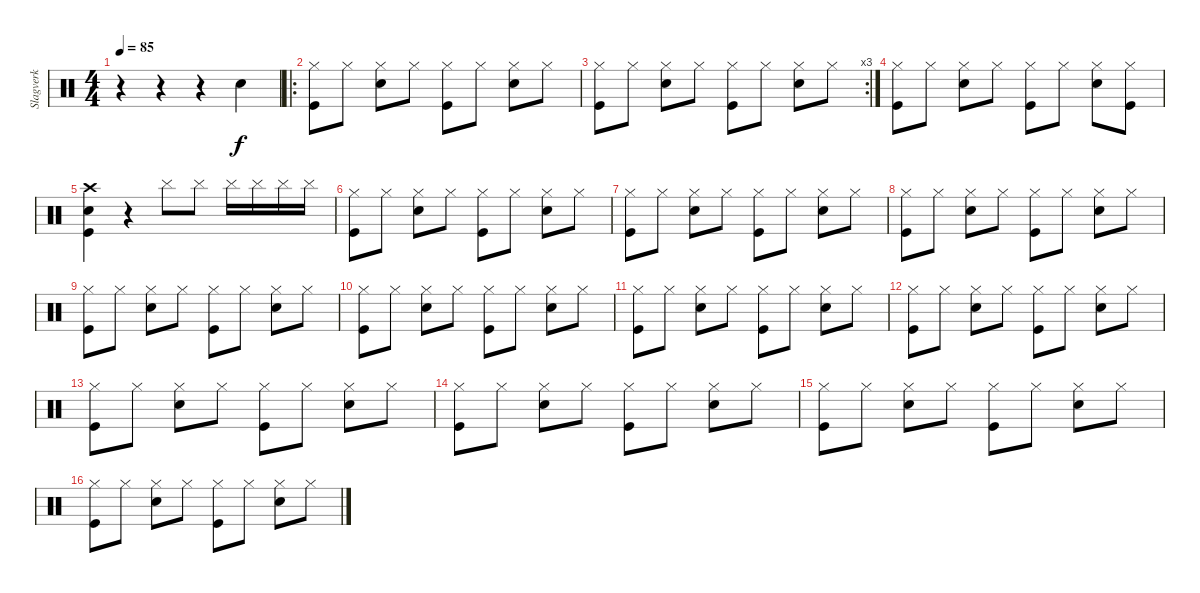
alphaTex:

\track ("Slagverk" "Slagverk") {instrument percussion}
\staff {score}
\articulation defaults
\ts (4 4)
\tempo 85
\clef neutral
\ks c
r.4{dy f} r.4 r.4 "Electric Snare (hit)".4 |
\ro
("Hi-Hat (closed)" "Kick (hit)").8 "Hi-Hat (closed)".8 ("Hi-Hat (closed)" "Electric Snare (hit)").8 "Hi-Hat (closed)".8 ("Hi-Hat (closed)" "Kick (hit)").8 "Hi-Hat (closed)".8 ("Hi-Hat (closed)" "Electric Snare (hit)").8 "Hi-Hat (closed)".8 |
\rc 3
("Hi-Hat (closed)" "Kick (hit)").8 "Hi-Hat (closed)".8 ("Hi-Hat (closed)" "Electric Snare (hit)").8 "Hi-Hat (closed)".8 ("Hi-Hat (closed)" "Kick (hit)").8 "Hi-Hat (closed)".8 ("Hi-Hat (closed)" "Electric Snare (hit)").8 "Hi-Hat (closed)".8 |
("Hi-Hat (closed)" "Kick (hit)").8 "Hi-Hat (closed)".8 ("Hi-Hat (closed)" "Electric Snare (hit)").8 "Hi-Hat (closed)".8 ("Hi-Hat (closed)" "Kick (hit)").8 "Hi-Hat (closed)".8 ("Hi-Hat (closed)" "Electric Snare (hit)").8 ("Hi-Hat (closed)" "Kick (hit)").8 |
("Electric Snare (hit)" "Crash high (hit)" "Kick (hit)").4 r.4 "Cymbal (hit)".8 "Cymbal (hit)".8 "Cymbal (hit)".16 "Cymbal (hit)".16 "Cymbal (hit)".16 "Cymbal (hit)".16 |
("Hi-Hat (closed)" "Kick (hit)").8 "Hi-Hat (closed)".8 ("Hi-Hat (closed)" "Electric Snare (hit)").8 "Hi-Hat (closed)".8 ("Hi-Hat (closed)" "Kick (hit)").8 "Hi-Hat (closed)".8 ("Hi-Hat (closed)" "Electric Snare (hit)").8 "Hi-Hat (closed)".8 |
("Hi-Hat (closed)" "Kick (hit)").8 "Hi-Hat (closed)".8 ("Hi-Hat (closed)" "Electric Snare (hit)").8 "Hi-Hat (closed)".8 ("Hi-Hat (closed)" "Kick (hit)").8 "Hi-Hat (closed)".8 ("Hi-Hat (closed)" "Electric Snare (hit)").8 "Hi-Hat (closed)".8 |
("Hi-Hat (closed)" "Kick (hit)").8 "Hi-Hat (closed)".8 ("Hi-Hat (closed)" "Electric Snare (hit)").8 "Hi-Hat (closed)".8 ("Hi-Hat (closed)" "Kick (hit)").8 "Hi-Hat (closed)".8 ("Hi-Hat (closed)" "Electric Snare (hit)").8 "Hi-Hat (closed)".8 |
("Hi-Hat (closed)" "Kick (hit)").8 "Hi-Hat (closed)".8 ("Hi-Hat (closed)" "Electric Snare (hit)").8 "Hi-Hat (closed)".8 ("Hi-Hat (closed)" "Kick (hit)").8 "Hi-Hat (closed)".8 ("Hi-Hat (closed)" "Electric Snare (hit)").8 "Hi-Hat (closed)".8 |
("Hi-Hat (closed)" "Kick (hit)").8 "Hi-Hat (closed)".8 ("Hi-Hat (closed)" "Electric Snare (hit)").8 "Hi-Hat (closed)".8 ("Hi-Hat (closed)" "Kick (hit)").8 "Hi-Hat (closed)".8 ("Hi-Hat (closed)" "Electric Snare (hit)").8 "Hi-Hat (closed)".8 |
("Hi-Hat (closed)" "Kick (hit)").8 "Hi-Hat (closed)".8 ("Hi-Hat (closed)" "Electric Snare (hit)").8 "Hi-Hat (closed)".8 ("Hi-Hat (closed)" "Kick (hit)").8 "Hi-Hat (closed)".8 ("Hi-Hat (closed)" "Electric Snare (hit)").8 "Hi-Hat (closed)".8 |
("Hi-Hat (closed)" "Kick (hit)").8 "Hi-Hat (closed)".8 ("Hi-Hat (closed)" "Electric Snare (hit)").8 "Hi-Hat (closed)".8 ("Hi-Hat (closed)" "Kick (hit)").8 "Hi-Hat (closed)".8 ("Hi-Hat (closed)" "Electric Snare (hit)").8 "Hi-Hat (closed)".8 |
("Hi-Hat (closed)" "Kick (hit)").8 "Hi-Hat (closed)".8 ("Hi-Hat (closed)" "Electric Snare (hit)").8 "Hi-Hat (closed)".8 ("Hi-Hat (closed)" "Kick (hit)").8 "Hi-Hat (closed)".8 ("Hi-Hat (closed)" "Electric Snare (hit)").8 "Hi-Hat (closed)".8 |
("Hi-Hat (closed)" "Kick (hit)").8 "Hi-Hat (closed)".8 ("Hi-Hat (closed)" "Electric Snare (hit)").8 "Hi-Hat (closed)".8 ("Hi-Hat (closed)" "Kick (hit)").8 "Hi-Hat (closed)".8 ("Hi-Hat (closed)" "Electric Snare (hit)").8 "Hi-Hat (closed)".8 |
("Hi-Hat (closed)" "Kick (hit)").8 "Hi-Hat (closed)".8 ("Hi-Hat (closed)" "Electric Snare (hit)").8 "Hi-Hat (closed)".8 ("Hi-Hat (closed)" "Kick (hit)").8 "Hi-Hat (closed)".8 ("Hi-Hat (closed)" "Electric Snare (hit)").8 "Hi-Hat (closed)".8 |
("Hi-Hat (closed)" "Kick (hit)").8 "Hi-Hat (closed)".8 ("Hi-Hat (closed)" "Electric Snare (hit)").8 "Hi-Hat (closed)".8 ("Hi-Hat (closed)" "Kick (hit)").8 "Hi-Hat (closed)".8 ("Hi-Hat (closed)" "Electric Snare (hit)").8 "Hi-Hat (closed)".8
